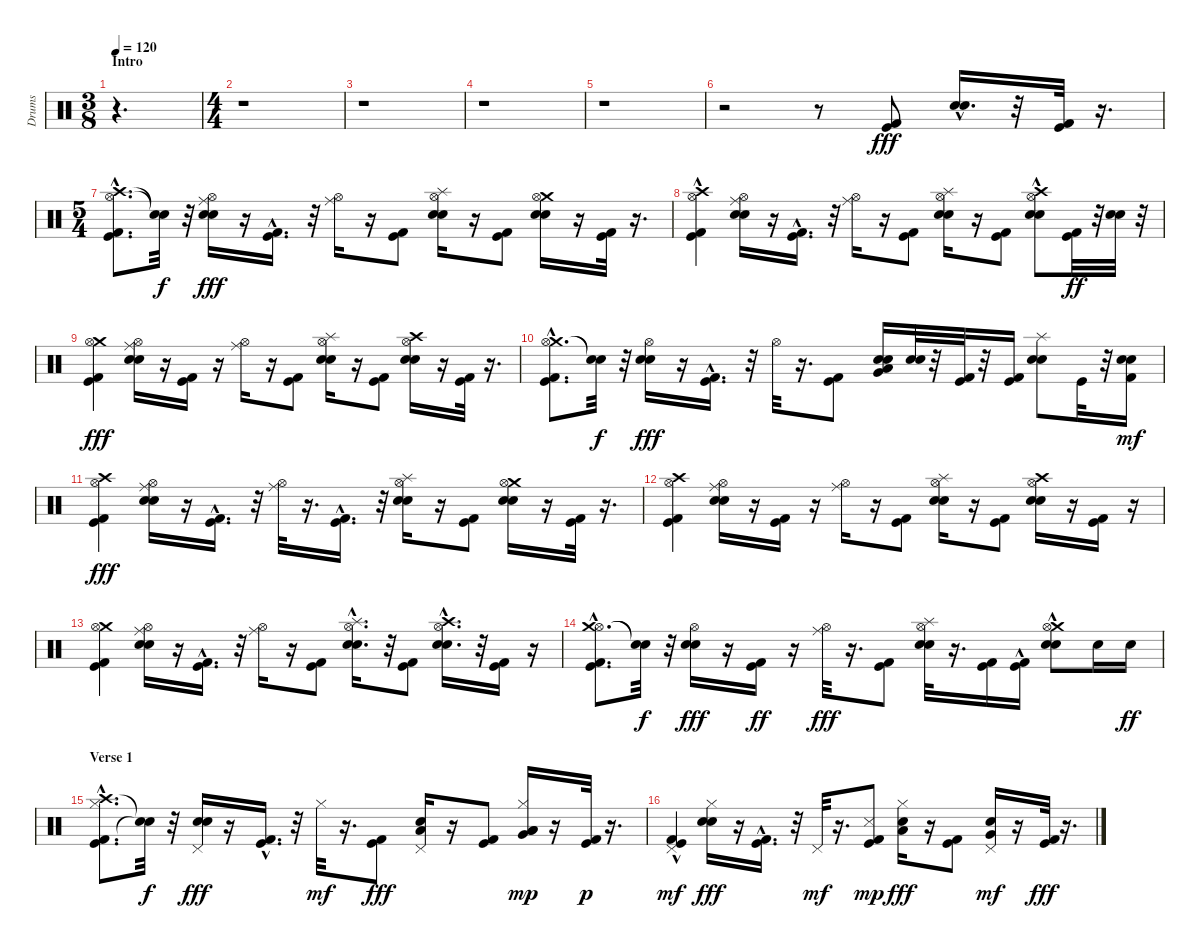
\track ("Drums" "Drums") {instrument percussion}
\staff {score}
\articulation defaults
\ts (3 8)
\section ("" "Intro")
\tempo 120
\clef neutral
\ks c
r.4{d dy fff} |
\ts (4 4)
r.1 |
r.1 |
r.1 |
r.1 |
r.2 r.8 ("Kick (hit) 2" "Kick (hit)").8 ("Snare (hit) 2"{hac} "Electric Snare (hit)"{hac}).16{d} r.32 ("Kick (hit)" "Kick (hit) 2").32 r.16{d} |
\ts (5 4)
("Hi-Hat (open)" "Crash high (hit)"{hac} "Kick (hit) 2"{hac} "Kick (hit)"{hac}).8{d} ("Snare (hit)"{t} "Snare (hit)"{t}).32{dy f} r.32 ("Hi-Hat (open)" "Ride (middle)" "Snare (hit) 2" "Electric Snare (hit)").16{dy fff} r.16 ("Kick (hit) 2"{hac} "Kick (hit)"{hac}).16{d} r.32 ("Hi-Hat (open)" "Ride (middle)").16 r.16 ("Kick (hit)" "Kick (hit) 2").8 ("Hi-Hat (open)" "Splash (hit)" "Electric Snare (hit)" "Snare (hit) 2").16 r.16 ("Kick (hit) 2" "Kick (hit)").8 ("Crash medium (hit)" "Hi-Hat (open)" "Electric Snare (hit)" "Snare (hit) 2").16 r.16 ("Kick (hit) 2" "Kick (hit)").32 r.16{d} |
("Hi-Hat (open)" "Crash high (hit)" "Kick (hit) 2"{hac} "Kick (hit)").4 ("Hi-Hat (open)" "Ride (middle)" "Snare (hit) 2" "Electric Snare (hit)").16 r.16 ("Kick (hit)"{hac} "Kick (hit) 2"{hac}).16{d} r.32 ("Hi-Hat (open)" "Ride (middle)").16 r.16 ("Kick (hit) 2" "Kick (hit)").8 ("Hi-Hat (open)" "Splash (hit)" "Electric Snare (hit)" "Snare (hit) 2").16 r.16 ("Kick (hit) 2" "Kick (hit)").8 ("Crash high (hit)" "Hi-Hat (open)" "Electric Snare (hit)" "Snare (hit) 2"{hac}).8 ("Kick (hit)" "Kick (hit) 2").32{dy ff} r.32 ("Snare (hit) 2" "Electric Snare (hit)").32 r.32 |
("Crash medium (hit)" "Hi-Hat (open)" "Kick (hit) 2" "Kick (hit)").4{dy fff} ("Hi-Hat (open)" "Ride (middle)" "Electric Snare (hit)" "Snare (hit) 2").16 r.16 ("Kick (hit)" "Kick (hit) 2").16 r.16 ("Hi-Hat (open)" "Ride (middle)").16 r.16 ("Kick (hit)" "Kick (hit) 2").8 ("Hi-Hat (open)" "Splash (hit)" "Snare (hit) 2" "Electric Snare (hit)").16 r.16 ("Kick (hit) 2" "Kick (hit)").8 ("Crash high (hit)" "Hi-Hat (open)" "Snare (hit) 2" "Electric Snare (hit)").16 r.16 ("Kick (hit) 2" "Kick (hit)").32 r.16{d} |
("Crash medium (hit)" "Hi-Hat (open)" "Kick (hit) 2"{hac} "Kick (hit)"{hac}).8{d} ("Snare (hit)"{t} "Snare (hit)"{t}).32{dy f} r.32 ("Hi-Hat (open)" "Electric Snare (hit)" "Snare (hit) 2").16{dy fff} r.16 ("Kick (hit) 2"{hac} "Kick (hit)"{hac}).16{d} r.32 "Hi-Hat (open)".32 r.16{d} ("Kick (hit) 2" "Kick (hit)").8 ("Very Low Tom (hit)" "Low Floor Tom (hit)" "Electric Snare (hit)" "Snare (hit) 2").16 ("Snare (hit) 2" "Electric Snare (hit)").32 r.32 ("Kick (hit) 2" "Kick (hit)").32 r.32 ("Kick (hit) 2" "Kick (hit)").16 ("Splash (hit)" "Snare (hit) 2" "Electric Snare (hit)").8 "Kick (hit)".32 r.32 ("Kick (hit) 2" "Snare (hit) 2" "Electric Snare (hit)").16{dy mf} |
("Crash high (hit)" "Hi-Hat (open)" "Kick (hit) 2" "Kick (hit)").4{dy fff} ("Hi-Hat (open)" "Ride (middle)" "Electric Snare (hit)" "Snare (hit) 2").16 r.16 ("Kick (hit) 2"{hac} "Kick (hit)").16{d} r.32 ("Hi-Hat (open)" "Ride (middle)").32 r.16{d} ("Kick (hit) 2"{hac} "Kick (hit)"{hac}).16{d} r.32 ("Hi-Hat (open)" "Splash (hit)" "Electric Snare (hit)" "Snare (hit) 2").16 r.16 ("Kick (hit) 2" "Kick (hit)").8 ("Crash medium (hit)" "Hi-Hat (open)" "Electric Snare (hit)" "Snare (hit) 2").16 r.16 ("Kick (hit)" "Kick (hit) 2").32 r.16{d} |
("Crash high (hit)" "Hi-Hat (open)" "Kick (hit) 2" "Kick (hit)").4 ("Hi-Hat (open)" "Ride (middle)" "Snare (hit) 2" "Electric Snare (hit)").16 r.16 ("Kick (hit) 2" "Kick (hit)").16 r.16 ("Hi-Hat (open)" "Ride (middle)").16 r.16 ("Kick (hit) 2" "Kick (hit)").8 ("Hi-Hat (open)" "Splash (hit)" "Electric Snare (hit)" "Snare (hit) 2").16 r.16 ("Kick (hit) 2" "Kick (hit)").8 ("Crash high (hit)" "Hi-Hat (open)" "Electric Snare (hit)" "Snare (hit) 2").16 r.16 ("Kick (hit)" "Kick (hit) 2").16 r.16 |
("Crash medium (hit)" "Hi-Hat (open)" "Kick (hit) 2" "Kick (hit)").4 ("Hi-Hat (open)" "Ride (middle)" "Electric Snare (hit)" "Snare (hit) 2").16 r.16 ("Kick (hit)"{hac} "Kick (hit) 2"{hac}).16{d} r.32 ("Hi-Hat (open)" "Ride (middle)").16 r.16 ("Kick (hit) 2" "Kick (hit)").8 ("Hi-Hat (open)" "Splash (hit)" "Snare (hit) 2" "Electric Snare (hit)"{hac}).16{d} r.32 ("Kick (hit) 2" "Kick (hit)").8 ("Hi-Hat (open)" "Crash high (hit)" "Snare (hit) 2" "Electric Snare (hit)"{hac}).16{d} r.32 ("Kick (hit) 2" "Kick (hit)").16 r.16 |
("Hi-Hat (open)" "Crash medium (hit)" "Kick (hit) 2"{hac} "Kick (hit)"{hac}).8{d} ("Snare (hit)"{t} "Snare (hit)"{t}).32{dy f} r.32 ("Hi-Hat (open)" "Snare (hit) 2" "Electric Snare (hit)").16{dy fff} r.16 ("Kick (hit)" "Kick (hit) 2").16{dy ff} r.16 ("Hi-Hat (open)" "Ride (middle)").32{dy fff} r.16{d} ("Kick (hit)" "Kick (hit) 2").8 ("Splash (hit)" "Hi-Hat (open)" "Electric Snare (hit)" "Snare (hit) 2").32 r.16{d} ("Kick (hit) 2" "Kick (hit)").16 ("Kick (hit) 2"{hac} "Kick (hit)").16 ("Crash medium (hit)" "Hi-Hat (open)" "Snare (hit) 2"{hac} "Electric Snare (hit)").8 "Snare (hit) 2".16 "Snare (hit) 2".16{dy ff} |
\section ("" "Verse 1")
("Crash high (hit)" "Kick (hit) 2"{hac} "Kick (hit)"{hac} "Hi-Hat (closed)").8{d} ("Snare (hit)"{t} "Snare (hit)"{t}).32{dy f} r.32 ("Electric Snare (hit)" "Snare (hit) 2" "Pedal Hi-Hat (hit)").16{dy fff} r.16 ("Kick (hit) 2" "Kick (hit)"{hac}).16{d} r.32 "Hi-Hat (closed)".32{dy mf} r.16{d} ("Kick (hit) 2" "Kick (hit)").8{dy fff} ("Snare (hit) 2" "Low Floor Tom (hit)" "Pedal Hi-Hat (hit)").16 r.16 ("Kick (hit)" "Kick (hit) 2").8 ("Low Tom (hit)" "Very Low Tom (hit)" "Low Floor Tom (hit)" "Hi-Hat (closed)").16{dy mp} r.16 ("Kick (hit) 2" "Kick (hit)").32{dy p} r.16{d} |
("Kick (hit) 2"{hac} "Kick (hit)" "Pedal Hi-Hat (hit)").4{dy mf} ("Snare (hit) 2" "Electric Snare (hit)" "Hi-Hat (closed)").16{dy fff} r.16 ("Kick (hit)" "Kick (hit) 2"{hac}).16{d} r.32 "Pedal Hi-Hat (hit)".32{dy mf} r.16{d} ("Kick (hit) 2" "Kick (hit)" "Metronome (hit)").8{dy mp} ("Hi-Hat (closed)" "Snare (hit) 2" "Low Floor Tom (hit)").16{dy fff} r.16 ("Kick (hit)" "Kick (hit) 2").8 ("Very Low Tom (hit)" "Snare (hit) 2" "Pedal Hi-Hat (hit)").16{dy mf} r.16 ("Kick (hit) 2" "Kick (hit)").32{dy fff} r.16{d}
